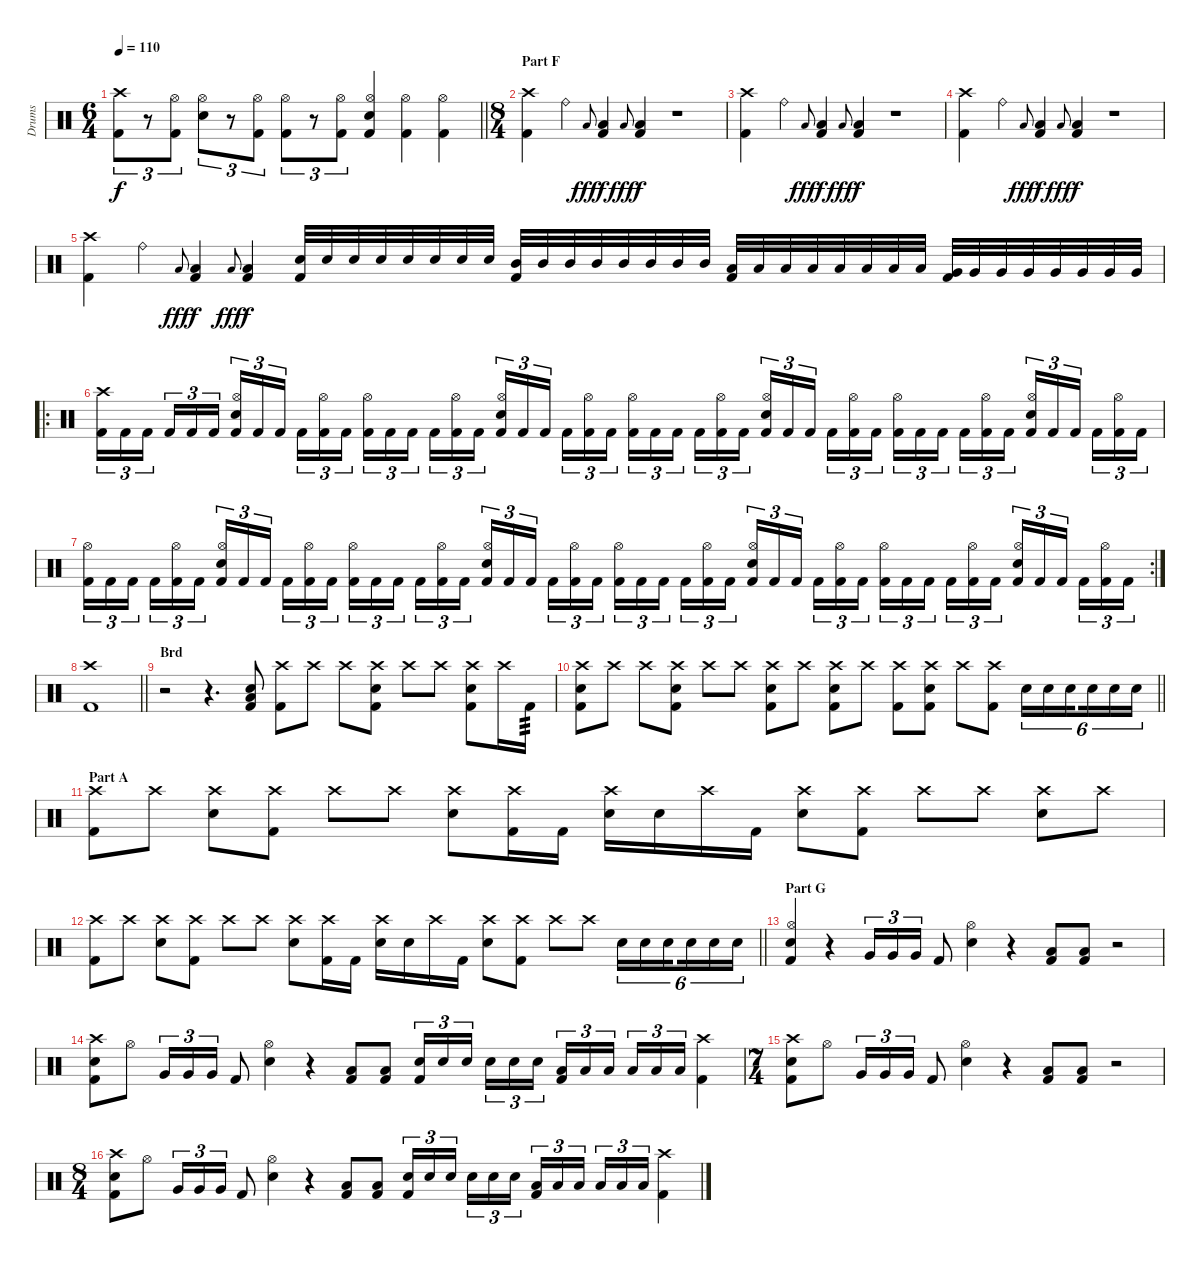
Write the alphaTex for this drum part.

\track ("Drums" "Drums") {instrument percussion}
\staff {score}
\articulation defaults
\ts (6 4)
\tempo 110
\clef neutral
\barLineRight lightlight
\ks c
("Kick (hit) 2" "Crash high (hit)").8{tu (3 2) dy f} r.8{tu (3 2)} ("Hi-Hat (open)" "Kick (hit) 2").8{tu (3 2)} ("Hi-Hat (open)" "Snare (hit) 2").8{tu (3 2)} r.8{tu (3 2)} ("Hi-Hat (open)" "Kick (hit) 2").8{tu (3 2)} ("Hi-Hat (open)" "Kick (hit) 2").8{tu (3 2)} r.8{tu (3 2)} ("Hi-Hat (open)" "Kick (hit) 2").8{tu (3 2)} ("Hi-Hat (open)" "Snare (hit) 2" "Kick (hit) 2").4 ("Kick (hit) 2" "Hi-Hat (open)").4 ("Kick (hit) 2" "Hi-Hat (open)").4 |
\ts (8 4)
\section ("" "Part F")
("Crash high (hit)" "Kick (hit) 2").4 "Ride (bell)".4 "Low Floor Tom (hit)".8{gr onbeat dy fff} ("Kick (hit) 2" "Low Floor Tom (hit)").4{dy f} "Low Floor Tom (hit)".8{gr onbeat dy fff} ("Kick (hit) 2" "Low Floor Tom (hit)").4{dy f} r.1 |
("Crash high (hit)" "Kick (hit) 2").4 "Ride (bell)".4 "Low Floor Tom (hit)".8{gr onbeat dy fff} ("Kick (hit) 2" "Low Floor Tom (hit)").4{dy f} "Low Floor Tom (hit)".8{gr onbeat dy fff} ("Kick (hit) 2" "Low Floor Tom (hit)").4{dy f} r.1 |
("Crash high (hit)" "Kick (hit) 2").4 "Ride (bell)".4 "Low Floor Tom (hit)".8{gr onbeat dy fff} ("Kick (hit) 2" "Low Floor Tom (hit)").4{dy f} "Low Floor Tom (hit)".8{gr onbeat dy fff} ("Kick (hit) 2" "Low Floor Tom (hit)").4{dy f} r.1 |
("Crash high (hit)" "Kick (hit) 2").4 "Ride (bell)".4 "Low Floor Tom (hit)".8{gr onbeat dy fff} ("Kick (hit) 2" "Low Floor Tom (hit)").4{dy f} "Low Floor Tom (hit)".8{gr onbeat dy fff} ("Kick (hit) 2" "Low Floor Tom (hit)").4{dy f} ("Kick (hit) 2" "Snare (hit) 2").32 "Snare (hit) 2".32 "Snare (hit) 2".32 "Snare (hit) 2".32 "Snare (hit) 2".32 "Snare (hit) 2".32 "Snare (hit) 2".32 "Snare (hit) 2".32 ("Kick (hit) 2" "Mid Tom (hit)").32 "Mid Tom (hit)".32 "Mid Tom (hit)".32 "Mid Tom (hit)".32 "Mid Tom (hit)".32 "Mid Tom (hit)".32 "Mid Tom (hit)".32 "Mid Tom (hit)".32 ("Low Tom (hit)" "Kick (hit) 2").32 "Low Tom (hit)".32 "Low Tom (hit)".32 "Low Tom (hit)".32 "Low Tom (hit)".32 "Low Tom (hit)".32 "Low Tom (hit)".32 "Low Tom (hit)".32 ("Very Low Tom (hit)" "Kick (hit) 2").32 "Very Low Tom (hit)".32 "Very Low Tom (hit)".32 "Very Low Tom (hit)".32 "Very Low Tom (hit)".32 "Very Low Tom (hit)".32 "Very Low Tom (hit)".32 "Very Low Tom (hit)".32 |
\ro
("Kick (hit) 2" "Crash high (hit)").16{tu (3 2)} "Kick (hit) 2".16{tu (3 2)} "Kick (hit) 2".16{tu (3 2) beam splitsecondary} "Kick (hit) 2".16{tu (3 2)} "Kick (hit) 2".16{tu (3 2)} "Kick (hit) 2".16{tu (3 2)} ("Kick (hit) 2" "Hi-Hat (open)" "Snare (hit) 2").16{tu (3 2)} "Kick (hit) 2".16{tu (3 2)} "Kick (hit) 2".16{tu (3 2) beam splitsecondary} "Kick (hit) 2".16{tu (3 2)} ("Kick (hit) 2" "Hi-Hat (open)").16{tu (3 2)} "Kick (hit) 2".16{tu (3 2)} ("Kick (hit) 2" "Hi-Hat (open)").16{tu (3 2)} "Kick (hit) 2".16{tu (3 2)} "Kick (hit) 2".16{tu (3 2) beam splitsecondary} "Kick (hit) 2".16{tu (3 2)} ("Kick (hit) 2" "Hi-Hat (open)").16{tu (3 2)} "Kick (hit) 2".16{tu (3 2)} ("Kick (hit) 2" "Hi-Hat (open)" "Snare (hit) 2").16{tu (3 2)} "Kick (hit) 2".16{tu (3 2)} "Kick (hit) 2".16{tu (3 2) beam splitsecondary} "Kick (hit) 2".16{tu (3 2)} ("Kick (hit) 2" "Hi-Hat (open)").16{tu (3 2)} "Kick (hit) 2".16{tu (3 2)} ("Kick (hit) 2" "Hi-Hat (open)").16{tu (3 2)} "Kick (hit) 2".16{tu (3 2)} "Kick (hit) 2".16{tu (3 2) beam splitsecondary} "Kick (hit) 2".16{tu (3 2)} ("Kick (hit) 2" "Hi-Hat (open)").16{tu (3 2)} "Kick (hit) 2".16{tu (3 2)} ("Kick (hit) 2" "Hi-Hat (open)" "Snare (hit) 2").16{tu (3 2)} "Kick (hit) 2".16{tu (3 2)} "Kick (hit) 2".16{tu (3 2) beam splitsecondary} "Kick (hit) 2".16{tu (3 2)} ("Kick (hit) 2" "Hi-Hat (open)").16{tu (3 2)} "Kick (hit) 2".16{tu (3 2)} ("Kick (hit) 2" "Hi-Hat (open)").16{tu (3 2)} "Kick (hit) 2".16{tu (3 2)} "Kick (hit) 2".16{tu (3 2) beam splitsecondary} "Kick (hit) 2".16{tu (3 2)} ("Kick (hit) 2" "Hi-Hat (open)").16{tu (3 2)} "Kick (hit) 2".16{tu (3 2)} ("Kick (hit) 2" "Hi-Hat (open)" "Snare (hit) 2").16{tu (3 2)} "Kick (hit) 2".16{tu (3 2)} "Kick (hit) 2".16{tu (3 2) beam splitsecondary} "Kick (hit) 2".16{tu (3 2)} ("Kick (hit) 2" "Hi-Hat (open)").16{tu (3 2)} "Kick (hit) 2".16{tu (3 2)} |
\rc 2
("Kick (hit) 2" "Hi-Hat (open)").16{tu (3 2)} "Kick (hit) 2".16{tu (3 2)} "Kick (hit) 2".16{tu (3 2) beam splitsecondary} "Kick (hit) 2".16{tu (3 2)} ("Kick (hit) 2" "Hi-Hat (open)").16{tu (3 2)} "Kick (hit) 2".16{tu (3 2)} ("Kick (hit) 2" "Hi-Hat (open)" "Snare (hit) 2").16{tu (3 2)} "Kick (hit) 2".16{tu (3 2)} "Kick (hit) 2".16{tu (3 2) beam splitsecondary} "Kick (hit) 2".16{tu (3 2)} ("Kick (hit) 2" "Hi-Hat (open)").16{tu (3 2)} "Kick (hit) 2".16{tu (3 2)} ("Kick (hit) 2" "Hi-Hat (open)").16{tu (3 2)} "Kick (hit) 2".16{tu (3 2)} "Kick (hit) 2".16{tu (3 2) beam splitsecondary} "Kick (hit) 2".16{tu (3 2)} ("Kick (hit) 2" "Hi-Hat (open)").16{tu (3 2)} "Kick (hit) 2".16{tu (3 2)} ("Kick (hit) 2" "Hi-Hat (open)" "Snare (hit) 2").16{tu (3 2)} "Kick (hit) 2".16{tu (3 2)} "Kick (hit) 2".16{tu (3 2) beam splitsecondary} "Kick (hit) 2".16{tu (3 2)} ("Kick (hit) 2" "Hi-Hat (open)").16{tu (3 2)} "Kick (hit) 2".16{tu (3 2)} ("Kick (hit) 2" "Hi-Hat (open)").16{tu (3 2)} "Kick (hit) 2".16{tu (3 2)} "Kick (hit) 2".16{tu (3 2) beam splitsecondary} "Kick (hit) 2".16{tu (3 2)} ("Kick (hit) 2" "Hi-Hat (open)").16{tu (3 2)} "Kick (hit) 2".16{tu (3 2)} ("Kick (hit) 2" "Hi-Hat (open)" "Snare (hit) 2").16{tu (3 2)} "Kick (hit) 2".16{tu (3 2)} "Kick (hit) 2".16{tu (3 2) beam splitsecondary} "Kick (hit) 2".16{tu (3 2)} ("Kick (hit) 2" "Hi-Hat (open)").16{tu (3 2)} "Kick (hit) 2".16{tu (3 2)} ("Kick (hit) 2" "Hi-Hat (open)").16{tu (3 2)} "Kick (hit) 2".16{tu (3 2)} "Kick (hit) 2".16{tu (3 2) beam splitsecondary} "Kick (hit) 2".16{tu (3 2)} ("Kick (hit) 2" "Hi-Hat (open)").16{tu (3 2)} "Kick (hit) 2".16{tu (3 2)} ("Kick (hit) 2" "Hi-Hat (open)" "Snare (hit) 2").16{tu (3 2)} "Kick (hit) 2".16{tu (3 2)} "Kick (hit) 2".16{tu (3 2) beam splitsecondary} "Kick (hit) 2".16{tu (3 2)} ("Kick (hit) 2" "Hi-Hat (open)").16{tu (3 2)} "Kick (hit) 2".16{tu (3 2)} |
\barLineRight lightlight
("Kick (hit) 2" "Crash high (hit)").1 |
\section ("" "Brd")
r.2 r.4{d} ("Kick (hit) 2" "Snare (hit) 2" "Low Floor Tom (hit)").8 ("Kick (hit) 2" "Crash high (hit)").8 "Crash high (hit)".8 "Crash high (hit)".8 ("Kick (hit) 2" "Snare (hit) 2" "Crash high (hit)").8 "Crash high (hit)".8 "Crash high (hit)".8 ("Kick (hit) 2" "Snare (hit) 2" "Crash high (hit)").8 "Crash high (hit)".16 "Kick (hit) 2".16{tp 3} |
\barLineRight lightlight
("Kick (hit) 2" "Snare (hit) 2" "Crash high (hit)").8 "Crash high (hit)".8 "Crash high (hit)".8 ("Kick (hit) 2" "Snare (hit) 2" "Crash high (hit)").8 "Crash high (hit)".8 "Crash high (hit)".8 ("Kick (hit) 2" "Snare (hit) 2" "Crash high (hit)").8 "Crash high (hit)".8 ("Kick (hit) 2" "Snare (hit) 2" "Crash high (hit)").8 "Crash high (hit)".8 ("Kick (hit) 2" "Crash high (hit)").8 ("Kick (hit) 2" "Snare (hit) 2" "Crash high (hit)").8 "Crash high (hit)".8 ("Kick (hit) 2" "Crash high (hit)").8 "Snare (hit) 2".16{tu (6 4)} "Snare (hit) 2".16{tu (6 4)} "Snare (hit) 2".16{tu (6 4) beam splitsecondary} "Snare (hit) 2".16{tu (6 4)} "Snare (hit) 2".16{tu (6 4)} "Snare (hit) 2".16{tu (6 4)} |
\section ("" "Part A")
("Kick (hit) 2" "Crash high (hit)").8 "Crash high (hit)".8 ("Crash high (hit)" "Snare (hit) 2").8 ("Crash high (hit)" "Kick (hit) 2").8 "Crash high (hit)".8 "Crash high (hit)".8 ("Snare (hit) 2" "Crash high (hit)").8 ("Kick (hit) 2" "Crash high (hit)").16 "Kick (hit) 2".16 ("Snare (hit) 2" "Crash high (hit)").16 "Snare (hit) 2".16 "Crash high (hit)".16 "Kick (hit) 2".16 ("Crash high (hit)" "Snare (hit) 2").8 ("Kick (hit) 2" "Crash high (hit)").8 "Crash high (hit)".8 "Crash high (hit)".8 ("Crash high (hit)" "Snare (hit) 2").8 "Crash high (hit)".8 |
\barLineRight lightlight
("Kick (hit) 2" "Crash high (hit)").8 "Crash high (hit)".8 ("Crash high (hit)" "Snare (hit) 2").8 ("Crash high (hit)" "Kick (hit) 2").8 "Crash high (hit)".8 "Crash high (hit)".8 ("Snare (hit) 2" "Crash high (hit)").8 ("Kick (hit) 2" "Crash high (hit)").16 "Kick (hit) 2".16 ("Snare (hit) 2" "Crash high (hit)").16 "Snare (hit) 2".16 "Crash high (hit)".16 "Kick (hit) 2".16 ("Crash high (hit)" "Snare (hit) 2").8 ("Kick (hit) 2" "Crash high (hit)").8 "Crash high (hit)".8 "Crash high (hit)".8 "Snare (hit) 2".16{tu (6 4)} "Snare (hit) 2".16{tu (6 4)} "Snare (hit) 2".16{tu (6 4) beam splitsecondary} "Snare (hit) 2".16{tu (6 4)} "Snare (hit) 2".16{tu (6 4)} "Snare (hit) 2".16{tu (6 4)} |
\section ("" "Part G")
("Snare (hit) 2" "Kick (hit) 2" "Hi-Hat (open)").4 r.4 "Very Low Tom (hit)".16{tu (3 2)} "Very Low Tom (hit)".16{tu (3 2)} "Very Low Tom (hit)".16{tu (3 2)} "Kick (hit) 2".8 ("Snare (hit) 2" "Hi-Hat (open)").4 r.4 ("Kick (hit) 2" "Low Floor Tom (hit)").8 ("Kick (hit) 2" "Low Floor Tom (hit)").8 r.2 |
("Snare (hit) 2" "Kick (hit) 2" "Crash high (hit)").8 "Hi-Hat (open)".8 "Very Low Tom (hit)".16{tu (3 2)} "Very Low Tom (hit)".16{tu (3 2)} "Very Low Tom (hit)".16{tu (3 2)} "Kick (hit) 2".8 ("Snare (hit) 2" "Hi-Hat (open)").4 r.4 ("Kick (hit) 2" "Low Floor Tom (hit)").8 ("Kick (hit) 2" "Low Floor Tom (hit)").8 ("Snare (hit) 2" "Kick (hit) 2").16{tu (3 2)} "Snare (hit) 2".16{tu (3 2)} "Snare (hit) 2".16{tu (3 2) beam splitsecondary} "Snare (hit) 2".16{tu (3 2)} "Snare (hit) 2".16{tu (3 2)} "Snare (hit) 2".16{tu (3 2)} ("Low Tom (hit)" "Kick (hit) 2").16{tu (3 2)} "Low Tom (hit)".16{tu (3 2)} "Low Tom (hit)".16{tu (3 2) beam splitsecondary} "Low Tom (hit)".16{tu (3 2)} "Low Tom (hit)".16{tu (3 2)} "Low Tom (hit)".16{tu (3 2)} ("Kick (hit) 2" "Crash high (hit)").4 |
\ts (7 4)
("Snare (hit) 2" "Kick (hit) 2" "Crash high (hit)").8 "Hi-Hat (open)".8 "Very Low Tom (hit)".16{tu (3 2)} "Very Low Tom (hit)".16{tu (3 2)} "Very Low Tom (hit)".16{tu (3 2)} "Kick (hit) 2".8 ("Snare (hit) 2" "Hi-Hat (open)").4 r.4 ("Kick (hit) 2" "Low Floor Tom (hit)").8 ("Kick (hit) 2" "Low Floor Tom (hit)").8 r.2 |
\ts (8 4)
("Snare (hit) 2" "Kick (hit) 2" "Crash high (hit)").8 "Hi-Hat (open)".8 "Very Low Tom (hit)".16{tu (3 2)} "Very Low Tom (hit)".16{tu (3 2)} "Very Low Tom (hit)".16{tu (3 2)} "Kick (hit) 2".8 ("Snare (hit) 2" "Hi-Hat (open)").4 r.4 ("Kick (hit) 2" "Low Floor Tom (hit)").8 ("Kick (hit) 2" "Low Floor Tom (hit)").8 ("Snare (hit) 2" "Kick (hit) 2").16{tu (3 2)} "Snare (hit) 2".16{tu (3 2)} "Snare (hit) 2".16{tu (3 2) beam splitsecondary} "Snare (hit) 2".16{tu (3 2)} "Snare (hit) 2".16{tu (3 2)} "Snare (hit) 2".16{tu (3 2)} ("Low Tom (hit)" "Kick (hit) 2").16{tu (3 2)} "Low Tom (hit)".16{tu (3 2)} "Low Tom (hit)".16{tu (3 2) beam splitsecondary} "Low Tom (hit)".16{tu (3 2)} "Low Tom (hit)".16{tu (3 2)} "Low Tom (hit)".16{tu (3 2)} ("Kick (hit) 2" "Crash high (hit)").4
